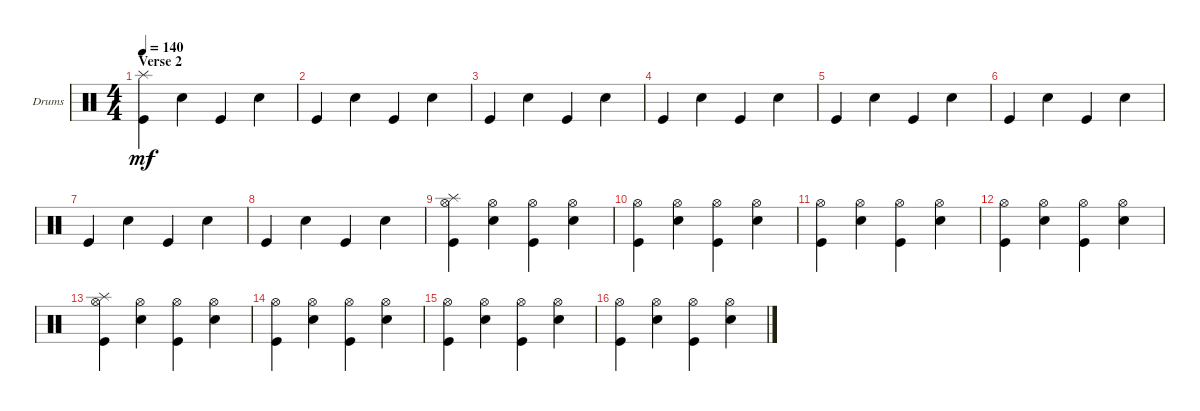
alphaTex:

\defaultSystemsLayout 4
\bracketExtendMode groupsimilarinstruments
\firstSystemTrackNameOrientation horizontal
\otherSystemsTrackNameOrientation horizontal
\track ("Drumkit" "Drums") {instrument percussion}
\staff {score}
\articulation defaults
\ts (4 4)
\section ("" "Verse 2")
\tempo 140
\clef neutral
\ks c
("Kick (hit)" "Splash (hit)").4{dy mf} "Snare (hit) 2".4 "Kick (hit)".4 "Snare (hit) 2".4 |
"Kick (hit)".4 "Snare (hit) 2".4 "Kick (hit)".4 "Snare (hit) 2".4 |
"Kick (hit)".4 "Snare (hit) 2".4 "Kick (hit)".4 "Snare (hit) 2".4 |
"Kick (hit)".4 "Snare (hit) 2".4 "Kick (hit)".4 "Snare (hit) 2".4 |
"Kick (hit)".4 "Snare (hit) 2".4 "Kick (hit)".4 "Snare (hit) 2".4 |
"Kick (hit)".4 "Snare (hit) 2".4 "Kick (hit)".4 "Snare (hit) 2".4 |
"Kick (hit)".4 "Snare (hit) 2".4 "Kick (hit)".4 "Snare (hit) 2".4 |
"Kick (hit)".4 "Snare (hit) 2".4 "Kick (hit)".4 "Snare (hit) 2".4 |
("Kick (hit)" "Splash (hit)" "Hi-Hat (open)").4 ("Snare (hit) 2" "Hi-Hat (open)").4 ("Kick (hit)" "Hi-Hat (open)").4 ("Snare (hit) 2" "Hi-Hat (open)").4 |
("Kick (hit)" "Hi-Hat (open)").4 ("Snare (hit) 2" "Hi-Hat (open)").4 ("Kick (hit)" "Hi-Hat (open)").4 ("Snare (hit) 2" "Hi-Hat (open)").4 |
("Kick (hit)" "Hi-Hat (open)").4 ("Snare (hit) 2" "Hi-Hat (open)").4 ("Kick (hit)" "Hi-Hat (open)").4 ("Snare (hit) 2" "Hi-Hat (open)").4 |
("Kick (hit)" "Hi-Hat (open)").4 ("Snare (hit) 2" "Hi-Hat (open)").4 ("Kick (hit)" "Hi-Hat (open)").4 ("Snare (hit) 2" "Hi-Hat (open)").4 |
("Kick (hit)" "Hi-Hat (open)" "Splash (hit)").4 ("Snare (hit) 2" "Hi-Hat (open)").4 ("Kick (hit)" "Hi-Hat (open)").4 ("Snare (hit) 2" "Hi-Hat (open)").4 |
("Kick (hit)" "Hi-Hat (open)").4 ("Snare (hit) 2" "Hi-Hat (open)").4 ("Kick (hit)" "Hi-Hat (open)").4 ("Snare (hit) 2" "Hi-Hat (open)").4 |
("Kick (hit)" "Hi-Hat (open)").4 ("Snare (hit) 2" "Hi-Hat (open)").4 ("Kick (hit)" "Hi-Hat (open)").4 ("Snare (hit) 2" "Hi-Hat (open)").4 |
("Kick (hit)" "Hi-Hat (open)").4 ("Snare (hit) 2" "Hi-Hat (open)").4 ("Kick (hit)" "Hi-Hat (open)").4 ("Snare (hit) 2" "Hi-Hat (open)").4
